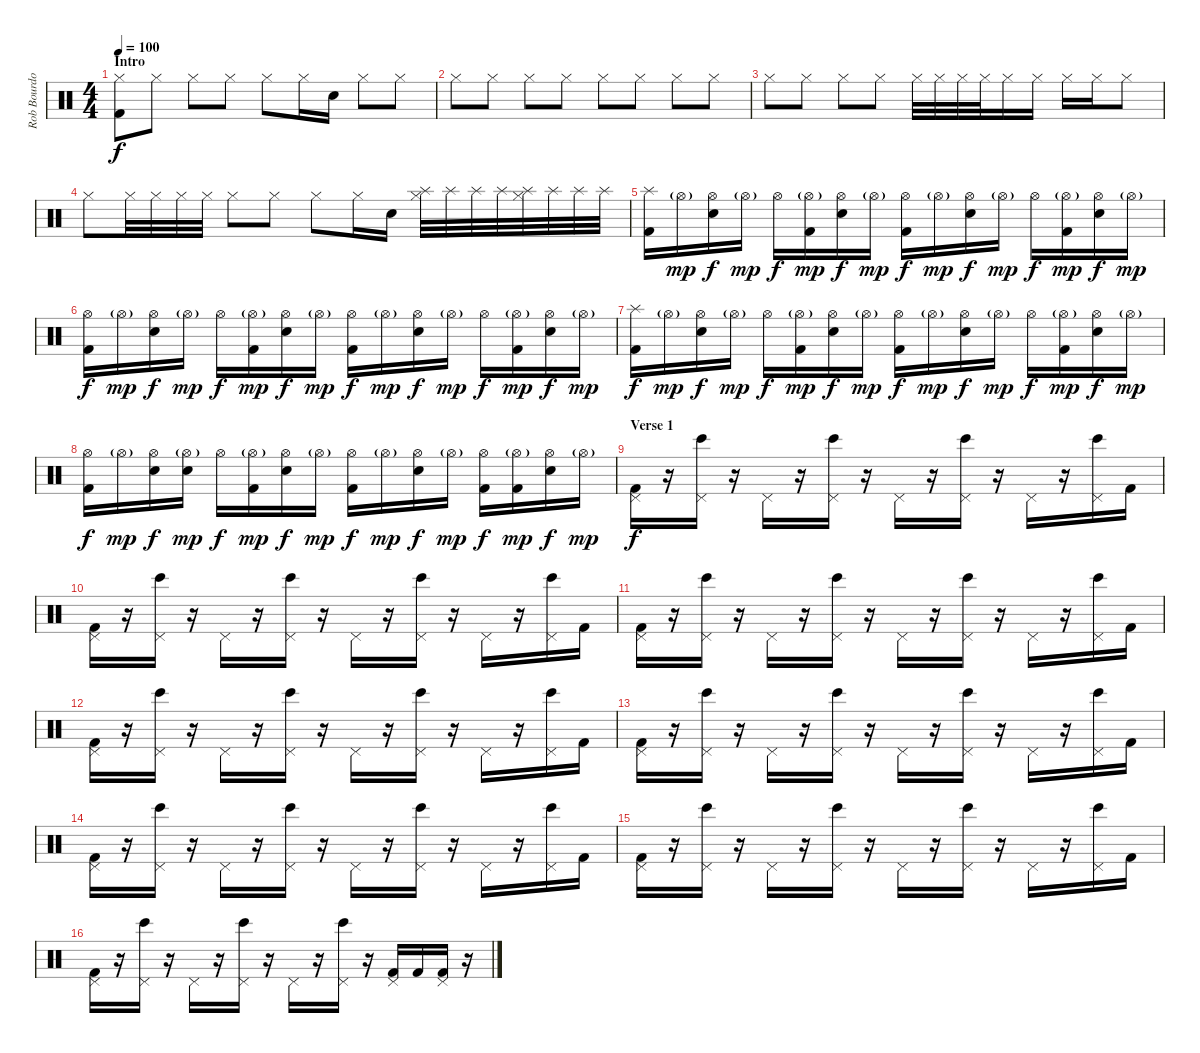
\track ("Rob Bourdon (Drums)" "Rob Bourdo") {instrument percussion}
\staff {score}
\articulation defaults
\ts (4 4)
\section ("" "Intro")
\tempo 100
\clef neutral
\ks c
("Hi-Hat (closed)" "Kick (hit) 2").8{dy f} "Hi-Hat (closed)".8 "Hi-Hat (closed)".8 "Hi-Hat (closed)".8 "Hi-Hat (closed)".8 "Hi-Hat (closed)".16 "Electric Snare (hit)".16 "Hi-Hat (closed)".8 "Hi-Hat (closed)".8 |
"Hi-Hat (closed)".8 "Hi-Hat (closed)".8 "Hi-Hat (closed)".8 "Hi-Hat (closed)".8 "Hi-Hat (closed)".8 "Hi-Hat (closed)".8 "Hi-Hat (closed)".8 "Hi-Hat (closed)".8 |
"Hi-Hat (closed)".8 "Hi-Hat (closed)".8 "Hi-Hat (closed)".8 "Hi-Hat (closed)".8 "Hi-Hat (closed)".32 "Hi-Hat (closed)".32 "Hi-Hat (closed)".32 "Hi-Hat (closed)".32 "Hi-Hat (closed)".16 "Hi-Hat (closed)".16 "Hi-Hat (closed)".16 "Hi-Hat (closed)".16 "Hi-Hat (closed)".8 |
"Hi-Hat (closed)".8 "Hi-Hat (closed)".32 "Hi-Hat (closed)".32 "Hi-Hat (closed)".32 "Hi-Hat (closed)".32 "Hi-Hat (closed)".8 "Hi-Hat (closed)".8 "Hi-Hat (closed)".8 "Hi-Hat (closed)".16 "Electric Snare (hit)".16 ("Hi-Hat (closed)" "Splash (hit)").32 "Splash (hit)".32 "Splash (hit)".32 "Splash (hit)".32 ("Hi-Hat (closed)" "Splash (hit)").32 "Splash (hit)".32 "Splash (hit)".32 "Splash (hit)".32 |
("Splash (hit)" "Kick (hit) 2").16 "Hi-Hat (open)"{g}.16{dy mp} ("Hi-Hat (open)" "Electric Snare (hit)").16{dy f} "Hi-Hat (open)"{g}.16{dy mp} "Hi-Hat (open)".16{dy f} ("Hi-Hat (open)"{g} "Kick (hit) 2").16{dy mp} ("Hi-Hat (open)" "Electric Snare (hit)").16{dy f} "Hi-Hat (open)"{g}.16{dy mp} ("Hi-Hat (open)" "Kick (hit) 2").16{dy f} "Hi-Hat (open)"{g}.16{dy mp} ("Hi-Hat (open)" "Electric Snare (hit)").16{dy f} "Hi-Hat (open)"{g}.16{dy mp} "Hi-Hat (open)".16{dy f} ("Hi-Hat (open)"{g} "Kick (hit) 2").16{dy mp} ("Hi-Hat (open)" "Electric Snare (hit)").16{dy f} "Hi-Hat (open)"{g}.16{dy mp} |
("Hi-Hat (open)" "Kick (hit) 2").16{dy f} "Hi-Hat (open)"{g}.16{dy mp} ("Hi-Hat (open)" "Electric Snare (hit)").16{dy f} "Hi-Hat (open)"{g}.16{dy mp} "Hi-Hat (open)".16{dy f} ("Hi-Hat (open)"{g} "Kick (hit) 2").16{dy mp} ("Hi-Hat (open)" "Electric Snare (hit)").16{dy f} "Hi-Hat (open)"{g}.16{dy mp} ("Hi-Hat (open)" "Kick (hit) 2").16{dy f} "Hi-Hat (open)"{g}.16{dy mp} ("Hi-Hat (open)" "Electric Snare (hit)").16{dy f} "Hi-Hat (open)"{g}.16{dy mp} "Hi-Hat (open)".16{dy f} ("Hi-Hat (open)"{g} "Kick (hit) 2").16{dy mp} ("Hi-Hat (open)" "Electric Snare (hit)").16{dy f} "Hi-Hat (open)"{g}.16{dy mp} |
("Splash (hit)" "Kick (hit) 2").16{dy f} "Hi-Hat (open)"{g}.16{dy mp} ("Hi-Hat (open)" "Electric Snare (hit)").16{dy f} "Hi-Hat (open)"{g}.16{dy mp} "Hi-Hat (open)".16{dy f} ("Hi-Hat (open)"{g} "Kick (hit) 2").16{dy mp} ("Hi-Hat (open)" "Electric Snare (hit)").16{dy f} "Hi-Hat (open)"{g}.16{dy mp} ("Hi-Hat (open)" "Kick (hit) 2").16{dy f} "Hi-Hat (open)"{g}.16{dy mp} ("Hi-Hat (open)" "Electric Snare (hit)").16{dy f} "Hi-Hat (open)"{g}.16{dy mp} "Hi-Hat (open)".16{dy f} ("Hi-Hat (open)"{g} "Kick (hit) 2").16{dy mp} ("Hi-Hat (open)" "Electric Snare (hit)").16{dy f} "Hi-Hat (open)"{g}.16{dy mp} |
("Hi-Hat (open)" "Kick (hit) 2").16{dy f} "Hi-Hat (open)"{g}.16{dy mp} ("Hi-Hat (open)" "Electric Snare (hit)").16{dy f} ("Hi-Hat (open)"{g} "Electric Snare (hit)").16{dy mp} "Hi-Hat (open)".16{dy f} ("Hi-Hat (open)"{g} "Kick (hit) 2").16{dy mp} ("Hi-Hat (open)" "Electric Snare (hit)").16{dy f} "Hi-Hat (open)"{g}.16{dy mp} ("Hi-Hat (open)" "Kick (hit) 2").16{dy f} "Hi-Hat (open)"{g}.16{dy mp} ("Hi-Hat (open)" "Electric Snare (hit)").16{dy f} "Hi-Hat (open)"{g}.16{dy mp} ("Hi-Hat (open)" "Kick (hit) 2").16{dy f} ("Hi-Hat (open)"{g} "Kick (hit) 2").16{dy mp} ("Hi-Hat (open)" "Electric Snare (hit)").16{dy f} "Hi-Hat (open)"{g}.16{dy mp} |
\section ("" "Verse 1")
("Pedal Hi-Hat (hit)" "Kick (hit) 2").16{dy f} r.16 ("Bongo High (hit)" "Pedal Hi-Hat (hit)").16 r.16 "Pedal Hi-Hat (hit)".16 r.16 ("Bongo High (hit)" "Pedal Hi-Hat (hit)").16 r.16 "Pedal Hi-Hat (hit)".16 r.16 ("Bongo High (hit)" "Pedal Hi-Hat (hit)").16 r.16 "Pedal Hi-Hat (hit)".16 r.16 ("Bongo High (hit)" "Pedal Hi-Hat (hit)").16 "Kick (hit) 2".16 |
("Pedal Hi-Hat (hit)" "Kick (hit) 2").16 r.16 ("Bongo High (hit)" "Pedal Hi-Hat (hit)").16 r.16 "Pedal Hi-Hat (hit)".16 r.16 ("Bongo High (hit)" "Pedal Hi-Hat (hit)").16 r.16 "Pedal Hi-Hat (hit)".16 r.16 ("Bongo High (hit)" "Pedal Hi-Hat (hit)").16 r.16 "Pedal Hi-Hat (hit)".16 r.16 ("Bongo High (hit)" "Pedal Hi-Hat (hit)").16 "Kick (hit) 2".16 |
("Pedal Hi-Hat (hit)" "Kick (hit) 2").16 r.16 ("Bongo High (hit)" "Pedal Hi-Hat (hit)").16 r.16 "Pedal Hi-Hat (hit)".16 r.16 ("Bongo High (hit)" "Pedal Hi-Hat (hit)").16 r.16 "Pedal Hi-Hat (hit)".16 r.16 ("Bongo High (hit)" "Pedal Hi-Hat (hit)").16 r.16 "Pedal Hi-Hat (hit)".16 r.16 ("Bongo High (hit)" "Pedal Hi-Hat (hit)").16 "Kick (hit) 2".16 |
("Pedal Hi-Hat (hit)" "Kick (hit) 2").16 r.16 ("Bongo High (hit)" "Pedal Hi-Hat (hit)").16 r.16 "Pedal Hi-Hat (hit)".16 r.16 ("Bongo High (hit)" "Pedal Hi-Hat (hit)").16 r.16 "Pedal Hi-Hat (hit)".16 r.16 ("Bongo High (hit)" "Pedal Hi-Hat (hit)").16 r.16 "Pedal Hi-Hat (hit)".16 r.16 ("Bongo High (hit)" "Pedal Hi-Hat (hit)").16 "Kick (hit) 2".16 |
("Pedal Hi-Hat (hit)" "Kick (hit) 2").16 r.16 ("Bongo High (hit)" "Pedal Hi-Hat (hit)").16 r.16 "Pedal Hi-Hat (hit)".16 r.16 ("Bongo High (hit)" "Pedal Hi-Hat (hit)").16 r.16 "Pedal Hi-Hat (hit)".16 r.16 ("Bongo High (hit)" "Pedal Hi-Hat (hit)").16 r.16 "Pedal Hi-Hat (hit)".16 r.16 ("Bongo High (hit)" "Pedal Hi-Hat (hit)").16 "Kick (hit) 2".16 |
("Pedal Hi-Hat (hit)" "Kick (hit) 2").16 r.16 ("Bongo High (hit)" "Pedal Hi-Hat (hit)").16 r.16 "Pedal Hi-Hat (hit)".16 r.16 ("Bongo High (hit)" "Pedal Hi-Hat (hit)").16 r.16 "Pedal Hi-Hat (hit)".16 r.16 ("Bongo High (hit)" "Pedal Hi-Hat (hit)").16 r.16 "Pedal Hi-Hat (hit)".16 r.16 ("Bongo High (hit)" "Pedal Hi-Hat (hit)").16 "Kick (hit) 2".16 |
("Pedal Hi-Hat (hit)" "Kick (hit) 2").16 r.16 ("Bongo High (hit)" "Pedal Hi-Hat (hit)").16 r.16 "Pedal Hi-Hat (hit)".16 r.16 ("Bongo High (hit)" "Pedal Hi-Hat (hit)").16 r.16 "Pedal Hi-Hat (hit)".16 r.16 ("Bongo High (hit)" "Pedal Hi-Hat (hit)").16 r.16 "Pedal Hi-Hat (hit)".16 r.16 ("Bongo High (hit)" "Pedal Hi-Hat (hit)").16 "Kick (hit) 2".16 |
("Pedal Hi-Hat (hit)" "Kick (hit) 2").16 r.16 ("Bongo High (hit)" "Pedal Hi-Hat (hit)").16 r.16 "Pedal Hi-Hat (hit)".16 r.16 ("Bongo High (hit)" "Pedal Hi-Hat (hit)").16 r.16 "Pedal Hi-Hat (hit)".16 r.16 ("Bongo High (hit)" "Pedal Hi-Hat (hit)").16 r.16 ("Pedal Hi-Hat (hit)" "Kick (hit) 2").16 "Kick (hit) 2".16 ("Pedal Hi-Hat (hit)" "Kick (hit) 2").16 r.16
